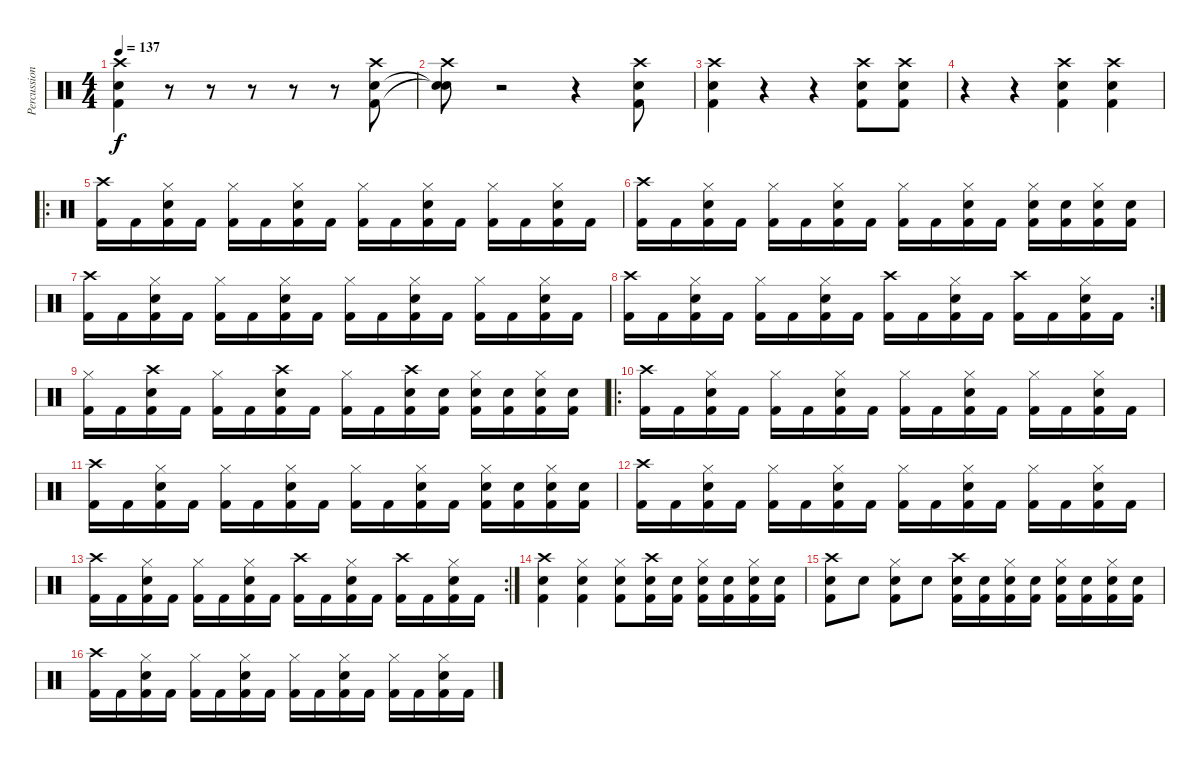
\track ("Percussion" "Percussion") {instrument percussion}
\staff {score}
\articulation defaults
\ts (4 4)
\tempo 137
\clef neutral
\ks c
("Crash high (hit)" "Snare (hit) 2" "Kick (hit) 2").4{dy f} r.8 r.8 r.8 r.8 r.8 ("Crash high (hit)" "Snare (hit) 2" "Kick (hit) 2").8 |
("Crash high (hit)" "Snare (hit)"{t} "Snare (hit)"{t}).8 r.2 r.4 ("Crash high (hit)" "Snare (hit) 2" "Kick (hit) 2").8 |
("Crash high (hit)" "Snare (hit) 2" "Kick (hit) 2").4 r.4 r.4 ("Crash high (hit)" "Snare (hit) 2" "Kick (hit) 2").8 ("Crash high (hit)" "Snare (hit) 2" "Kick (hit) 2").8 |
r.4 r.4 ("Crash high (hit)" "Snare (hit) 2" "Kick (hit) 2").4 ("Crash high (hit)" "Snare (hit) 2" "Kick (hit) 2").4 |
\ro
("Crash high (hit)" "Kick (hit) 2").16 "Kick (hit) 2".16 ("Hi-Hat (closed)" "Snare (hit) 2" "Kick (hit) 2").16 "Kick (hit) 2".16 ("Hi-Hat (closed)" "Kick (hit) 2").16 "Kick (hit) 2".16 ("Hi-Hat (closed)" "Snare (hit) 2" "Kick (hit) 2").16 "Kick (hit) 2".16 ("Hi-Hat (closed)" "Kick (hit) 2").16 "Kick (hit) 2".16 ("Hi-Hat (closed)" "Snare (hit) 2" "Kick (hit) 2").16 "Kick (hit) 2".16 ("Hi-Hat (closed)" "Kick (hit) 2").16 "Kick (hit) 2".16 ("Hi-Hat (closed)" "Snare (hit) 2" "Kick (hit) 2").16 "Kick (hit) 2".16 |
("Crash high (hit)" "Kick (hit) 2").16 "Kick (hit) 2".16 ("Hi-Hat (closed)" "Snare (hit) 2" "Kick (hit) 2").16 "Kick (hit) 2".16 ("Hi-Hat (closed)" "Kick (hit) 2").16 "Kick (hit) 2".16 ("Hi-Hat (closed)" "Snare (hit) 2" "Kick (hit) 2").16 "Kick (hit) 2".16 ("Hi-Hat (closed)" "Kick (hit) 2").16 "Kick (hit) 2".16 ("Hi-Hat (closed)" "Snare (hit) 2" "Kick (hit) 2").16 "Kick (hit) 2".16 ("Hi-Hat (closed)" "Snare (hit) 2" "Kick (hit) 2").16 ("Snare (hit) 2" "Kick (hit) 2").16 ("Hi-Hat (closed)" "Snare (hit) 2" "Kick (hit) 2").16 ("Snare (hit) 2" "Kick (hit) 2").16 |
("Crash high (hit)" "Kick (hit) 2").16 "Kick (hit) 2".16 ("Hi-Hat (closed)" "Snare (hit) 2" "Kick (hit) 2").16 "Kick (hit) 2".16 ("Hi-Hat (closed)" "Kick (hit) 2").16 "Kick (hit) 2".16 ("Hi-Hat (closed)" "Snare (hit) 2" "Kick (hit) 2").16 "Kick (hit) 2".16 ("Hi-Hat (closed)" "Kick (hit) 2").16 "Kick (hit) 2".16 ("Hi-Hat (closed)" "Snare (hit) 2" "Kick (hit) 2").16 "Kick (hit) 2".16 ("Hi-Hat (closed)" "Kick (hit) 2").16 "Kick (hit) 2".16 ("Hi-Hat (closed)" "Snare (hit) 2" "Kick (hit) 2").16 "Kick (hit) 2".16 |
\rc 2
("Crash high (hit)" "Kick (hit) 2").16 "Kick (hit) 2".16 ("Hi-Hat (closed)" "Snare (hit) 2" "Kick (hit) 2").16 "Kick (hit) 2".16 ("Hi-Hat (closed)" "Kick (hit) 2").16 "Kick (hit) 2".16 ("Hi-Hat (closed)" "Snare (hit) 2" "Kick (hit) 2").16 "Kick (hit) 2".16 ("Crash high (hit)" "Kick (hit) 2").16 "Kick (hit) 2".16 ("Hi-Hat (closed)" "Snare (hit) 2" "Kick (hit) 2").16 "Kick (hit) 2".16 ("Crash high (hit)" "Kick (hit) 2").16 "Kick (hit) 2".16 ("Hi-Hat (closed)" "Snare (hit) 2" "Kick (hit) 2").16 "Kick (hit) 2".16 |
("Hi-Hat (closed)" "Kick (hit) 2").16 "Kick (hit) 2".16 ("Crash high (hit)" "Snare (hit) 2" "Kick (hit) 2").16 "Kick (hit) 2".16 ("Hi-Hat (closed)" "Kick (hit) 2").16 "Kick (hit) 2".16 ("Crash high (hit)" "Snare (hit) 2" "Kick (hit) 2").16 "Kick (hit) 2".16 ("Hi-Hat (closed)" "Kick (hit) 2").16 "Kick (hit) 2".16 ("Crash high (hit)" "Snare (hit) 2" "Kick (hit) 2").16 ("Snare (hit) 2" "Kick (hit) 2").16 ("Hi-Hat (closed)" "Snare (hit) 2" "Kick (hit) 2").16 ("Snare (hit) 2" "Kick (hit) 2").16 ("Hi-Hat (closed)" "Snare (hit) 2" "Kick (hit) 2").16 ("Snare (hit) 2" "Kick (hit) 2").16 |
\ro
("Crash high (hit)" "Kick (hit) 2").16 "Kick (hit) 2".16 ("Hi-Hat (closed)" "Snare (hit) 2" "Kick (hit) 2").16 "Kick (hit) 2".16 ("Hi-Hat (closed)" "Kick (hit) 2").16 "Kick (hit) 2".16 ("Hi-Hat (closed)" "Snare (hit) 2" "Kick (hit) 2").16 "Kick (hit) 2".16 ("Hi-Hat (closed)" "Kick (hit) 2").16 "Kick (hit) 2".16 ("Hi-Hat (closed)" "Snare (hit) 2" "Kick (hit) 2").16 "Kick (hit) 2".16 ("Hi-Hat (closed)" "Kick (hit) 2").16 "Kick (hit) 2".16 ("Hi-Hat (closed)" "Snare (hit) 2" "Kick (hit) 2").16 "Kick (hit) 2".16 |
("Crash high (hit)" "Kick (hit) 2").16 "Kick (hit) 2".16 ("Hi-Hat (closed)" "Snare (hit) 2" "Kick (hit) 2").16 "Kick (hit) 2".16 ("Hi-Hat (closed)" "Kick (hit) 2").16 "Kick (hit) 2".16 ("Hi-Hat (closed)" "Snare (hit) 2" "Kick (hit) 2").16 "Kick (hit) 2".16 ("Hi-Hat (closed)" "Kick (hit) 2").16 "Kick (hit) 2".16 ("Hi-Hat (closed)" "Snare (hit) 2" "Kick (hit) 2").16 "Kick (hit) 2".16 ("Hi-Hat (closed)" "Snare (hit) 2" "Kick (hit) 2").16 ("Snare (hit) 2" "Kick (hit) 2").16 ("Hi-Hat (closed)" "Snare (hit) 2" "Kick (hit) 2").16 ("Snare (hit) 2" "Kick (hit) 2").16 |
("Crash high (hit)" "Kick (hit) 2").16 "Kick (hit) 2".16 ("Hi-Hat (closed)" "Snare (hit) 2" "Kick (hit) 2").16 "Kick (hit) 2".16 ("Hi-Hat (closed)" "Kick (hit) 2").16 "Kick (hit) 2".16 ("Hi-Hat (closed)" "Snare (hit) 2" "Kick (hit) 2").16 "Kick (hit) 2".16 ("Hi-Hat (closed)" "Kick (hit) 2").16 "Kick (hit) 2".16 ("Hi-Hat (closed)" "Snare (hit) 2" "Kick (hit) 2").16 "Kick (hit) 2".16 ("Hi-Hat (closed)" "Kick (hit) 2").16 "Kick (hit) 2".16 ("Hi-Hat (closed)" "Snare (hit) 2" "Kick (hit) 2").16 "Kick (hit) 2".16 |
\rc 2
("Crash high (hit)" "Kick (hit) 2").16 "Kick (hit) 2".16 ("Hi-Hat (closed)" "Snare (hit) 2" "Kick (hit) 2").16 "Kick (hit) 2".16 ("Hi-Hat (closed)" "Kick (hit) 2").16 "Kick (hit) 2".16 ("Hi-Hat (closed)" "Snare (hit) 2" "Kick (hit) 2").16 "Kick (hit) 2".16 ("Crash high (hit)" "Kick (hit) 2").16 "Kick (hit) 2".16 ("Hi-Hat (closed)" "Snare (hit) 2" "Kick (hit) 2").16 "Kick (hit) 2".16 ("Crash high (hit)" "Kick (hit) 2").16 "Kick (hit) 2".16 ("Hi-Hat (closed)" "Snare (hit) 2" "Kick (hit) 2").16 "Kick (hit) 2".16 |
("Crash high (hit)" "Snare (hit) 2" "Kick (hit) 2").4 ("Hi-Hat (closed)" "Snare (hit) 2" "Kick (hit) 2").4 ("Hi-Hat (closed)" "Snare (hit) 2" "Kick (hit) 2").8 ("Crash high (hit)" "Snare (hit) 2" "Kick (hit) 2").16 ("Snare (hit) 2" "Kick (hit) 2").16 ("Hi-Hat (closed)" "Snare (hit) 2" "Kick (hit) 2").16 ("Snare (hit) 2" "Kick (hit) 2").16 ("Hi-Hat (closed)" "Snare (hit) 2" "Kick (hit) 2").16 ("Snare (hit) 2" "Kick (hit) 2").16 |
("Crash high (hit)" "Snare (hit) 2" "Kick (hit) 2").8 "Snare (hit) 2".8 ("Hi-Hat (closed)" "Snare (hit) 2" "Kick (hit) 2").8 "Snare (hit) 2".8 ("Crash high (hit)" "Snare (hit) 2" "Kick (hit) 2").16 ("Snare (hit) 2" "Kick (hit) 2").16 ("Hi-Hat (closed)" "Snare (hit) 2" "Kick (hit) 2").16 ("Snare (hit) 2" "Kick (hit) 2").16 ("Hi-Hat (closed)" "Snare (hit) 2" "Kick (hit) 2").16 ("Snare (hit) 2" "Kick (hit) 2").16 ("Hi-Hat (closed)" "Snare (hit) 2" "Kick (hit) 2").16 ("Snare (hit) 2" "Kick (hit) 2").16 |
("Crash high (hit)" "Kick (hit) 2").16 "Kick (hit) 2".16 ("Hi-Hat (closed)" "Snare (hit) 2" "Kick (hit) 2").16 "Kick (hit) 2".16 ("Hi-Hat (closed)" "Kick (hit) 2").16 "Kick (hit) 2".16 ("Hi-Hat (closed)" "Snare (hit) 2" "Kick (hit) 2").16 "Kick (hit) 2".16 ("Hi-Hat (closed)" "Kick (hit) 2").16 "Kick (hit) 2".16 ("Hi-Hat (closed)" "Snare (hit) 2" "Kick (hit) 2").16 "Kick (hit) 2".16 ("Hi-Hat (closed)" "Kick (hit) 2").16 "Kick (hit) 2".16 ("Hi-Hat (closed)" "Snare (hit) 2" "Kick (hit) 2").16 "Kick (hit) 2".16
